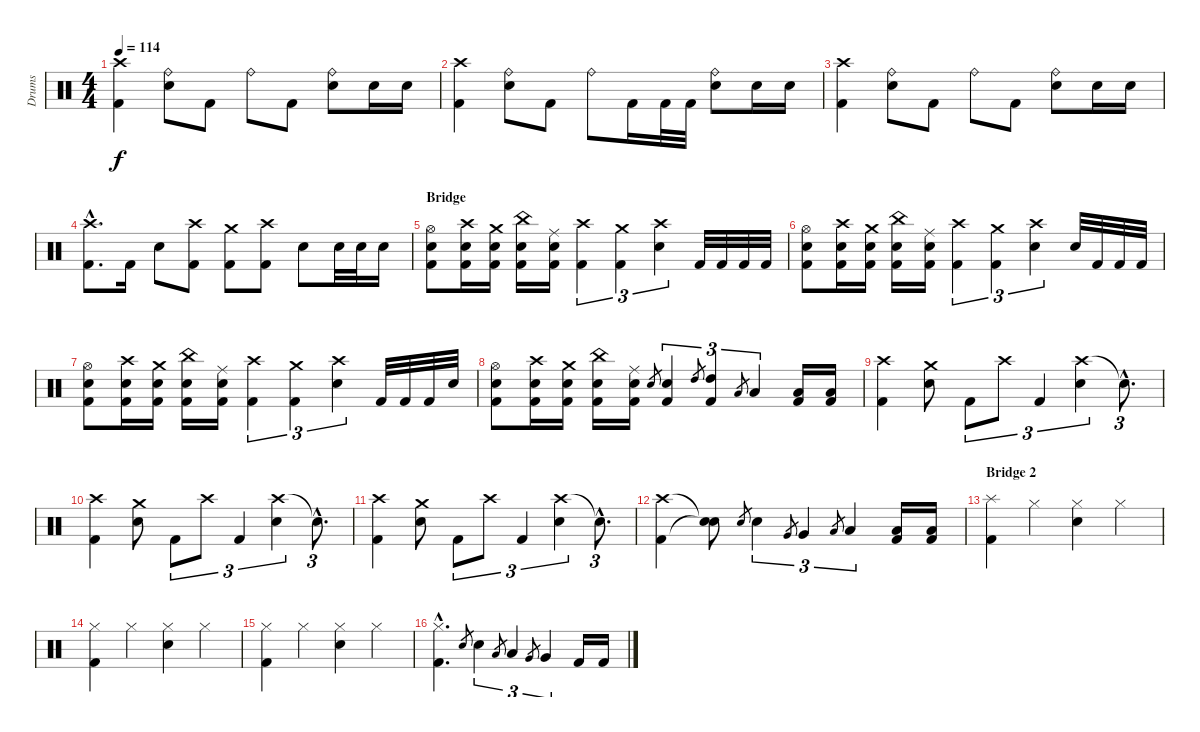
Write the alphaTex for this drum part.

\track ("Drums" "Drums") {instrument percussion}
\staff {score}
\articulation defaults
\ts (4 4)
\tempo 114
\clef neutral
\ks c
("Crash high (hit)" "Kick (hit) 2").4{dy f} ("Ride (bell)" "Electric Snare (hit)").8 "Kick (hit) 2".8 "Ride (bell)".8 "Kick (hit) 2".8 ("Ride (bell)" "Electric Snare (hit)").8 "Electric Snare (hit)".16 "Electric Snare (hit)".16 |
("Crash high (hit)" "Kick (hit) 2").4 ("Ride (bell)" "Electric Snare (hit)").8 "Kick (hit) 2".8 "Ride (bell)".8 "Kick (hit) 2".16 "Kick (hit) 2".32 "Kick (hit) 2".32 ("Ride (bell)" "Electric Snare (hit)").8 "Electric Snare (hit)".16 "Electric Snare (hit)".16 |
("Crash high (hit)" "Kick (hit) 2").4 ("Ride (bell)" "Electric Snare (hit)").8 "Kick (hit) 2".8 "Ride (bell)".8 "Kick (hit) 2".8 ("Ride (bell)" "Electric Snare (hit)").8 "Electric Snare (hit)".16 "Electric Snare (hit)".16 |
("Crash high (hit)"{hac} "Kick (hit) 2"{hac}).8{d} "Kick (hit) 2".16 "Electric Snare (hit)".8 ("Crash high (hit)" "Kick (hit) 2").8 ("Crash medium (hit)" "Kick (hit) 2").8 ("Crash high (hit)" "Kick (hit) 2").8 "Electric Snare (hit)".8 "Electric Snare (hit)".32 "Electric Snare (hit)".32 "Electric Snare (hit)".16 |
\section ("" "Bridge")
("Hi-Hat (open)" "Electric Snare (hit)" "Kick (hit) 2").8 ("Crash high (hit)" "Electric Snare (hit)" "Kick (hit) 2").16 ("Crash medium (hit)" "Electric Snare (hit)" "Kick (hit) 2").16 ("China (hit)" "Electric Snare (hit)" "Kick (hit) 2").16 ("Ride (middle)" "Electric Snare (hit)" "Kick (hit) 2").16 ("Crash high (hit)" "Kick (hit) 2").4{tu (3 2)} ("Crash medium (hit)" "Kick (hit) 2").4{tu (3 2)} ("Crash high (hit)" "Electric Snare (hit)").4{tu (3 2)} "Kick (hit) 2".32 "Kick (hit) 2".32 "Kick (hit) 2".32 "Kick (hit) 2".32 |
("Hi-Hat (open)" "Electric Snare (hit)" "Kick (hit) 2").8 ("Crash high (hit)" "Electric Snare (hit)" "Kick (hit) 2").16 ("Crash medium (hit)" "Electric Snare (hit)" "Kick (hit) 2").16 ("China (hit)" "Electric Snare (hit)" "Kick (hit) 2").16 ("Ride (middle)" "Electric Snare (hit)" "Kick (hit) 2").16 ("Crash high (hit)" "Kick (hit) 2").4{tu (3 2)} ("Crash medium (hit)" "Kick (hit) 2").4{tu (3 2)} ("Crash high (hit)" "Electric Snare (hit)").4{tu (3 2)} "Electric Snare (hit)".32 "Kick (hit) 2".32 "Kick (hit) 2".32 "Kick (hit) 2".32 |
("Hi-Hat (open)" "Electric Snare (hit)" "Kick (hit) 2").8 ("Crash high (hit)" "Electric Snare (hit)" "Kick (hit) 2").16 ("Crash medium (hit)" "Electric Snare (hit)" "Kick (hit) 2").16 ("China (hit)" "Electric Snare (hit)" "Kick (hit) 2").16 ("Ride (middle)" "Electric Snare (hit)" "Kick (hit) 2").16 ("Crash high (hit)" "Kick (hit) 2").4{tu (3 2)} ("Crash medium (hit)" "Kick (hit) 2").4{tu (3 2)} ("Crash high (hit)" "Electric Snare (hit)").4{tu (3 2)} "Kick (hit) 2".32 "Kick (hit) 2".32 "Kick (hit) 2".32 "Electric Snare (hit)".32 |
("Hi-Hat (open)" "Electric Snare (hit)" "Kick (hit) 2").8 ("Crash high (hit)" "Electric Snare (hit)" "Kick (hit) 2").16 ("Crash medium (hit)" "Electric Snare (hit)" "Kick (hit) 2").16 ("China (hit)" "Electric Snare (hit)" "Kick (hit) 2").16 ("Ride (middle)" "Electric Snare (hit)" "Kick (hit) 2").16 "Electric Snare (hit)".8{gr} ("Electric Snare (hit)" "Kick (hit) 2").4{tu (3 2)} "High Tom (hit)".8{gr} ("High Tom (hit)" "Kick (hit) 2").4{tu (3 2)} "Low Tom (hit)".8{gr} "Low Tom (hit)".4{tu (3 2)} ("Low Floor Tom (hit)" "Kick (hit) 2").16 ("Low Floor Tom (hit)" "Kick (hit) 2").16 |
("Crash high (hit)" "Kick (hit) 2").4 ("Crash medium (hit)" "Electric Snare (hit)").8 "Kick (hit) 2".8{tu (3 2)} "Crash high (hit)".8{tu (3 2)} "Kick (hit) 2".4{tu (3 2)} ("Crash high (hit)" "Electric Snare (hit)").4{tu (3 2)} "Snare (hit)"{hac t}.8{d tu (3 2)} |
("Crash high (hit)" "Kick (hit) 2").4 ("Crash medium (hit)" "Electric Snare (hit)").8 "Kick (hit) 2".8{tu (3 2)} "Crash high (hit)".8{tu (3 2)} "Kick (hit) 2".4{tu (3 2)} ("Crash high (hit)" "Electric Snare (hit)").4{tu (3 2)} "Snare (hit)"{hac t}.8{d tu (3 2)} |
("Crash high (hit)" "Kick (hit) 2").4 ("Crash medium (hit)" "Electric Snare (hit)").8 "Kick (hit) 2".8{tu (3 2)} "Crash high (hit)".8{tu (3 2)} "Kick (hit) 2".4{tu (3 2)} ("Crash high (hit)" "Electric Snare (hit)").4{tu (3 2)} "Snare (hit)"{hac t}.8{d tu (3 2)} |
("Crash high (hit)" "Kick (hit) 2").4 ("Snare (hit)"{t} "Snare (hit)"{t}).8 "Electric Snare (hit)".8{gr} "Electric Snare (hit)".4{tu (3 2)} "Very Low Tom (hit)".8{gr} "Very Low Tom (hit)".4{tu (3 2)} "Low Floor Tom (hit)".8{gr} "Low Floor Tom (hit)".4{tu (3 2)} ("Low Floor Tom (hit)" "Kick (hit) 2").16 ("Low Floor Tom (hit)" "Kick (hit) 2").16 |
\section ("" "Bridge 2")
("Splash (hit)" "Kick (hit) 2").4 "Hi-Hat (closed)".4 ("Hi-Hat (closed)" "Electric Snare (hit)").4 "Hi-Hat (closed)".4 |
("Hi-Hat (closed)" "Kick (hit) 2").4 "Hi-Hat (closed)".4 ("Hi-Hat (closed)" "Electric Snare (hit)").4 "Hi-Hat (closed)".4 |
("Hi-Hat (closed)" "Kick (hit) 2").4 "Hi-Hat (closed)".4 ("Hi-Hat (closed)" "Electric Snare (hit)").4 "Hi-Hat (closed)".4 |
("Hi-Hat (closed)"{hac} "Kick (hit) 2"{hac}).4{d} "Electric Snare (hit)".8{gr} "Electric Snare (hit)".4{tu (3 2)} "Low Tom (hit)".8{gr} "Low Tom (hit)".4{tu (3 2)} "Very Low Tom (hit)".8{gr} "Very Low Tom (hit)".4{tu (3 2)} "Kick (hit) 2".16 "Kick (hit) 2".16
